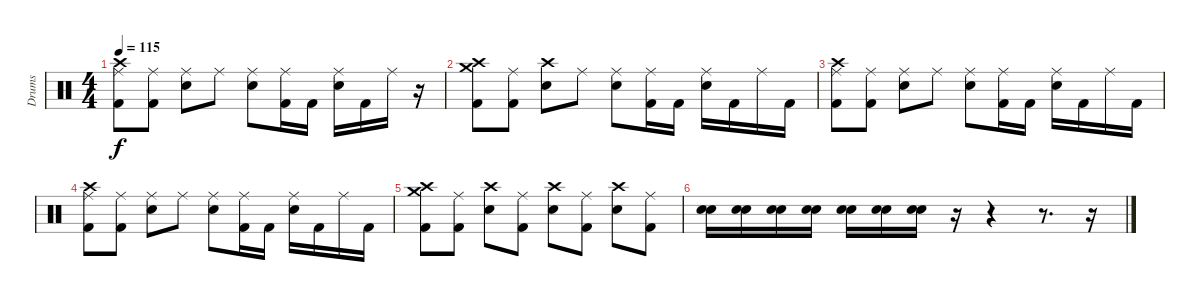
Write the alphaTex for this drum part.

\track ("Drums" "Drums") {instrument percussion}
\staff {score}
\articulation defaults
\ts (4 4)
\tempo 115
\clef neutral
\ks c
("Ride (middle)" "Kick (hit) 2" "Crash high (hit)").8{dy f} ("Ride (middle)" "Kick (hit) 2").8 ("Ride (middle)" "Electric Snare (hit)").8 "Ride (middle)".8 ("Ride (middle)" "Snare (hit) 2").8 ("Ride (middle)" "Kick (hit) 2").16 "Kick (hit) 2".16 ("Ride (middle)" "Snare (hit) 2").16 "Kick (hit) 2".16 "Ride (middle)".16 r.16 |
("Crash medium (hit)" "Kick (hit) 2" "Crash high (hit)").8 ("Ride (middle)" "Kick (hit) 2").8 ("Crash high (hit)" "Electric Snare (hit)").8 "Ride (middle)".8 ("Ride (middle)" "Snare (hit) 2").8 ("Ride (middle)" "Kick (hit) 2").16 "Kick (hit) 2".16 ("Ride (middle)" "Snare (hit) 2").16 "Kick (hit) 2".16 "Ride (middle)".16 "Kick (hit) 2".16 |
("Ride (middle)" "Kick (hit) 2" "Crash high (hit)").8 ("Ride (middle)" "Kick (hit) 2").8 ("Ride (middle)" "Electric Snare (hit)").8 "Ride (middle)".8 ("Ride (middle)" "Snare (hit) 2").8 ("Ride (middle)" "Kick (hit) 2").16 "Kick (hit) 2".16 ("Ride (middle)" "Snare (hit) 2").16 "Kick (hit) 2".16 "Ride (middle)".16 "Kick (hit) 2".16 |
("Ride (middle)" "Kick (hit) 2" "Crash high (hit)").8 ("Ride (middle)" "Kick (hit) 2").8 ("Ride (middle)" "Electric Snare (hit)").8 "Ride (middle)".8 ("Ride (middle)" "Snare (hit) 2").8 ("Ride (middle)" "Kick (hit) 2").16 "Kick (hit) 2".16 ("Ride (middle)" "Snare (hit) 2").16 "Kick (hit) 2".16 "Ride (middle)".16 "Kick (hit) 2".16 |
("Crash medium (hit)" "Kick (hit) 2" "Crash high (hit)").8 ("Ride (middle)" "Kick (hit) 2").8 ("Crash high (hit)" "Electric Snare (hit)").8 ("Ride (middle)" "Kick (hit) 2").8 ("Crash high (hit)" "Snare (hit) 2").8 ("Ride (middle)" "Kick (hit) 2").8 ("Crash high (hit)" "Snare (hit) 2").8 ("Ride (middle)" "Kick (hit) 2").8 |
("Snare (hit) 2" "Electric Snare (hit)").16 ("Snare (hit) 2" "Electric Snare (hit)").16 ("Snare (hit) 2" "Electric Snare (hit)").16 ("Snare (hit) 2" "Electric Snare (hit)").16 ("Snare (hit) 2" "Electric Snare (hit)").16 ("Snare (hit) 2" "Electric Snare (hit)").16 ("Snare (hit) 2" "Electric Snare (hit)").16 r.16 r.4 r.8{d} r.16
